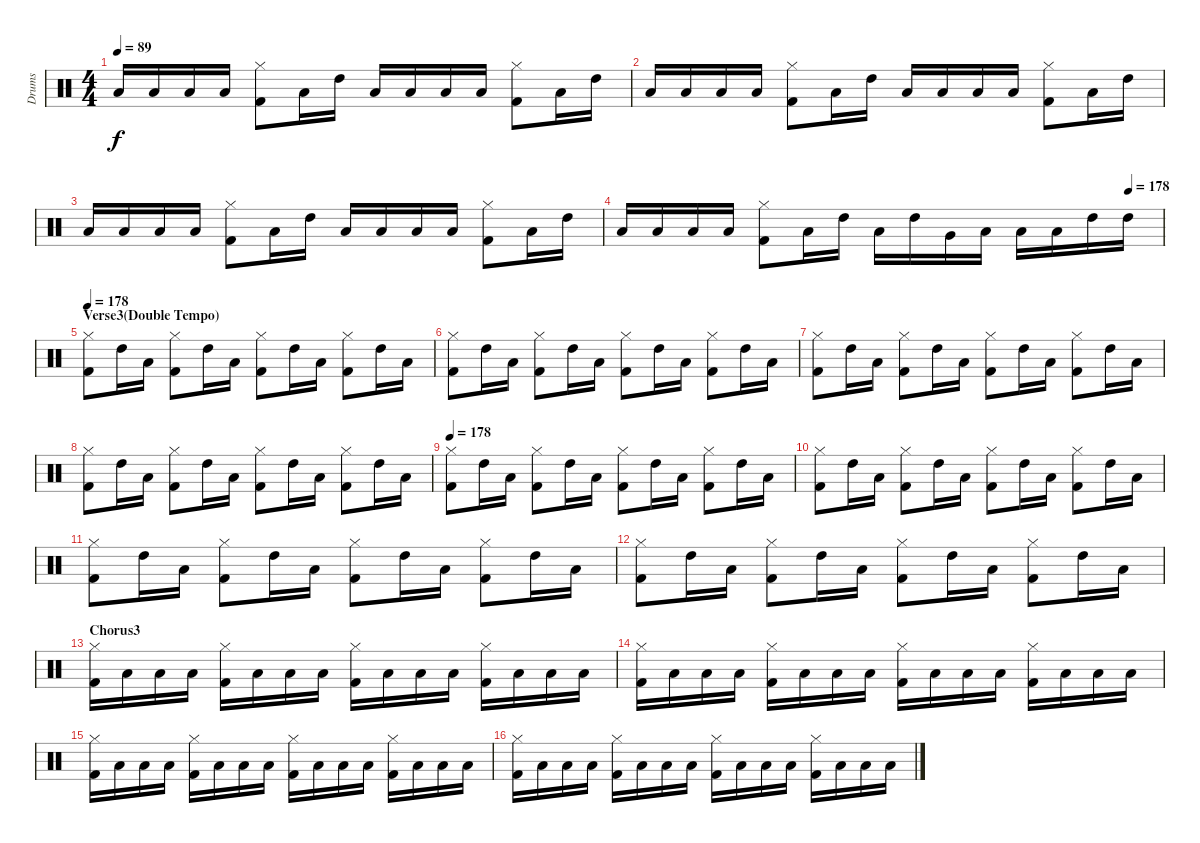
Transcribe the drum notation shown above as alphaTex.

\track ("Drums" "Drums") {instrument percussion}
\staff {score}
\articulation defaults
\ts (4 4)
\tempo 89
\clef neutral
\ks c "Low Tom (hit)".16{dy f} "Low Tom (hit)".16 "Low Tom (hit)".16 "Low Tom (hit)".16
("Hi-Hat (closed)" "Kick (hit) 2").8 "Low Tom (hit)".16 "High Tom (hit)".16 "Low Tom (hit)".16 "Low Tom (hit)".16 "Low Tom (hit)".16 "Low Tom (hit)".16 ("Hi-Hat (closed)" "Kick (hit) 2").8 "Low Tom (hit)".16 "High Tom (hit)".16 |
"Low Tom (hit)".16 "Low Tom (hit)".16 "Low Tom (hit)".16 "Low Tom (hit)".16 ("Hi-Hat (closed)" "Kick (hit) 2").8 "Low Tom (hit)".16 "High Tom (hit)".16 "Low Tom (hit)".16 "Low Tom (hit)".16 "Low Tom (hit)".16 "Low Tom (hit)".16 ("Hi-Hat (closed)" "Kick (hit) 2").8 "Low Tom (hit)".16 "High Tom (hit)".16 |
"Low Tom (hit)".16 "Low Tom (hit)".16 "Low Tom (hit)".16 "Low Tom (hit)".16 ("Hi-Hat (closed)" "Kick (hit) 2").8 "Low Tom (hit)".16 "High Tom (hit)".16 "Low Tom (hit)".16 "Low Tom (hit)".16 "Low Tom (hit)".16 "Low Tom (hit)".16 ("Hi-Hat (closed)" "Kick (hit) 2").8 "Low Tom (hit)".16 "High Tom (hit)".16 |
\tempo (178 0.9375)
"Low Tom (hit)".16 "Low Tom (hit)".16 "Low Tom (hit)".16 "Low Tom (hit)".16 ("Hi-Hat (closed)" "Kick (hit) 2").8 "Low Tom (hit)".16 "High Tom (hit)".16 "Low Tom (hit)".16 "High Tom (hit)".16 "Very Low Tom (hit)".16 "Low Floor Tom (hit)".16 "Low Tom (hit)".16 "Low Tom (hit)".16 "High Tom (hit)".16 "High Tom (hit)".16 |
\section ("" "Verse3(Double Tempo)")
\tempo 178
("Hi-Hat (closed)" "Kick (hit) 2").8 "High Tom (hit)".16 "Low Tom (hit)".16 ("Hi-Hat (closed)" "Kick (hit) 2").8 "High Tom (hit)".16 "Low Tom (hit)".16 ("Hi-Hat (closed)" "Kick (hit) 2").8 "High Tom (hit)".16 "Low Tom (hit)".16 ("Hi-Hat (closed)" "Kick (hit) 2").8 "High Tom (hit)".16 "Low Tom (hit)".16 |
("Hi-Hat (closed)" "Kick (hit) 2").8 "High Tom (hit)".16 "Low Tom (hit)".16 ("Hi-Hat (closed)" "Kick (hit) 2").8 "High Tom (hit)".16 "Low Tom (hit)".16 ("Hi-Hat (closed)" "Kick (hit) 2").8 "High Tom (hit)".16 "Low Tom (hit)".16 ("Hi-Hat (closed)" "Kick (hit) 2").8 "High Tom (hit)".16 "Low Tom (hit)".16 |
("Hi-Hat (closed)" "Kick (hit) 2").8 "High Tom (hit)".16 "Low Tom (hit)".16 ("Hi-Hat (closed)" "Kick (hit) 2").8 "High Tom (hit)".16 "Low Tom (hit)".16 ("Hi-Hat (closed)" "Kick (hit) 2").8 "High Tom (hit)".16 "Low Tom (hit)".16 ("Hi-Hat (closed)" "Kick (hit) 2").8 "High Tom (hit)".16 "Low Tom (hit)".16 |
("Hi-Hat (closed)" "Kick (hit) 2").8 "High Tom (hit)".16 "Low Tom (hit)".16 ("Hi-Hat (closed)" "Kick (hit) 2").8 "High Tom (hit)".16 "Low Tom (hit)".16 ("Hi-Hat (closed)" "Kick (hit) 2").8 "High Tom (hit)".16 "Low Tom (hit)".16 ("Hi-Hat (closed)" "Kick (hit) 2").8 "High Tom (hit)".16 "Low Tom (hit)".16 |
\tempo 178
("Hi-Hat (closed)" "Kick (hit) 2").8 "High Tom (hit)".16 "Low Tom (hit)".16 ("Hi-Hat (closed)" "Kick (hit) 2").8 "High Tom (hit)".16 "Low Tom (hit)".16 ("Hi-Hat (closed)" "Kick (hit) 2").8 "High Tom (hit)".16 "Low Tom (hit)".16 ("Hi-Hat (closed)" "Kick (hit) 2").8 "High Tom (hit)".16 "Low Tom (hit)".16 |
("Hi-Hat (closed)" "Kick (hit) 2").8 "High Tom (hit)".16 "Low Tom (hit)".16 ("Hi-Hat (closed)" "Kick (hit) 2").8 "High Tom (hit)".16 "Low Tom (hit)".16 ("Hi-Hat (closed)" "Kick (hit) 2").8 "High Tom (hit)".16 "Low Tom (hit)".16 ("Hi-Hat (closed)" "Kick (hit) 2").8 "High Tom (hit)".16 "Low Tom (hit)".16 |
("Hi-Hat (closed)" "Kick (hit) 2").8 "High Tom (hit)".16 "Low Tom (hit)".16 ("Hi-Hat (closed)" "Kick (hit) 2").8 "High Tom (hit)".16 "Low Tom (hit)".16 ("Hi-Hat (closed)" "Kick (hit) 2").8 "High Tom (hit)".16 "Low Tom (hit)".16 ("Hi-Hat (closed)" "Kick (hit) 2").8 "High Tom (hit)".16 "Low Tom (hit)".16 |
("Hi-Hat (closed)" "Kick (hit) 2").8 "High Tom (hit)".16 "Low Tom (hit)".16 ("Hi-Hat (closed)" "Kick (hit) 2").8 "High Tom (hit)".16 "Low Tom (hit)".16 ("Hi-Hat (closed)" "Kick (hit) 2").8 "High Tom (hit)".16 "Low Tom (hit)".16 ("Hi-Hat (closed)" "Kick (hit) 2").8 "High Tom (hit)".16 "Low Tom (hit)".16 |
\section ("" "Chorus3")
("Kick (hit) 2" "Hi-Hat (closed)").16 "Low Tom (hit)".16 "Low Tom (hit)".16 "Low Tom (hit)".16 ("Kick (hit) 2" "Hi-Hat (closed)").16 "Low Tom (hit)".16 "Low Tom (hit)".16 "Low Tom (hit)".16 ("Kick (hit) 2" "Hi-Hat (closed)").16 "Low Tom (hit)".16 "Low Tom (hit)".16 "Low Tom (hit)".16 ("Hi-Hat (closed)" "Kick (hit) 2").16 "Low Tom (hit)".16 "Low Tom (hit)".16 "Low Tom (hit)".16 |
("Kick (hit) 2" "Hi-Hat (closed)").16 "Low Tom (hit)".16 "Low Tom (hit)".16 "Low Tom (hit)".16 ("Kick (hit) 2" "Hi-Hat (closed)").16 "Low Tom (hit)".16 "Low Tom (hit)".16 "Low Tom (hit)".16 ("Kick (hit) 2" "Hi-Hat (closed)").16 "Low Tom (hit)".16 "Low Tom (hit)".16 "Low Tom (hit)".16 ("Hi-Hat (closed)" "Kick (hit) 2").16 "Low Tom (hit)".16 "Low Tom (hit)".16 "Low Tom (hit)".16 |
("Kick (hit) 2" "Hi-Hat (closed)").16 "Low Tom (hit)".16 "Low Tom (hit)".16 "Low Tom (hit)".16 ("Kick (hit) 2" "Hi-Hat (closed)").16 "Low Tom (hit)".16 "Low Tom (hit)".16 "Low Tom (hit)".16 ("Kick (hit) 2" "Hi-Hat (closed)").16 "Low Tom (hit)".16 "Low Tom (hit)".16 "Low Tom (hit)".16 ("Hi-Hat (closed)" "Kick (hit) 2").16 "Low Tom (hit)".16 "Low Tom (hit)".16 "Low Tom (hit)".16 |
("Kick (hit) 2" "Hi-Hat (closed)").16 "Low Tom (hit)".16 "Low Tom (hit)".16 "Low Tom (hit)".16 ("Kick (hit) 2" "Hi-Hat (closed)").16 "Low Tom (hit)".16 "Low Tom (hit)".16 "Low Tom (hit)".16 ("Kick (hit) 2" "Hi-Hat (closed)").16 "Low Tom (hit)".16 "Low Tom (hit)".16 "Low Tom (hit)".16 ("Hi-Hat (closed)" "Kick (hit) 2").16 "Low Tom (hit)".16 "Low Tom (hit)".16 "Low Tom (hit)".16
